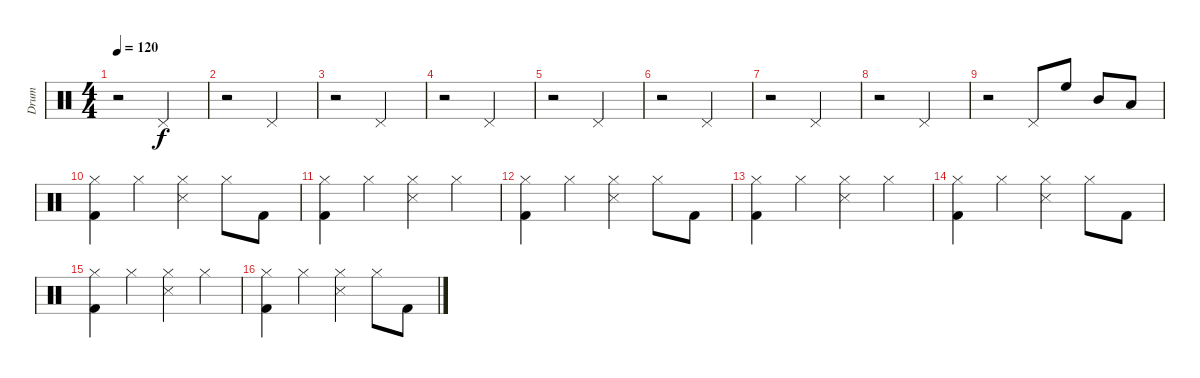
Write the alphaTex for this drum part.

\track ("Drum" "Drum") {instrument percussion}
\staff {score}
\articulation defaults
\ts (4 4)
\tempo 120
\clef neutral
\ks c
r.2{dy f} "Pedal Hi-Hat (hit)".2 |
r.2 "Pedal Hi-Hat (hit)".2 |
r.2 "Pedal Hi-Hat (hit)".2 |
r.2 "Pedal Hi-Hat (hit)".2 |
r.2 "Pedal Hi-Hat (hit)".2 |
r.2 "Pedal Hi-Hat (hit)".2 |
r.2 "Pedal Hi-Hat (hit)".2 |
r.2 "Pedal Hi-Hat (hit)".2 |
r.2 "Pedal Hi-Hat (hit)".8 "High Floor Tom (hit)".8 "Mid Tom (hit)".8 "Low Tom (hit)".8 |
("Hi-Hat (closed)" "Kick (hit) 2").4 "Hi-Hat (closed)".4 ("Hi-Hat (closed)" "Snare (side stick) 3").4 "Hi-Hat (closed)".8 "Kick (hit) 2".8 |
("Hi-Hat (closed)" "Kick (hit) 2").4 "Hi-Hat (closed)".4 ("Hi-Hat (closed)" "Snare (side stick) 3").4 "Hi-Hat (closed)".4 |
("Hi-Hat (closed)" "Kick (hit) 2").4 "Hi-Hat (closed)".4 ("Hi-Hat (closed)" "Snare (side stick) 3").4 "Hi-Hat (closed)".8 "Kick (hit) 2".8 |
("Hi-Hat (closed)" "Kick (hit) 2").4 "Hi-Hat (closed)".4 ("Hi-Hat (closed)" "Snare (side stick) 3").4 "Hi-Hat (closed)".4 |
("Hi-Hat (closed)" "Kick (hit) 2").4 "Hi-Hat (closed)".4 ("Hi-Hat (closed)" "Snare (side stick) 3").4 "Hi-Hat (closed)".8 "Kick (hit) 2".8 |
("Hi-Hat (closed)" "Kick (hit) 2").4 "Hi-Hat (closed)".4 ("Hi-Hat (closed)" "Snare (side stick) 3").4 "Hi-Hat (closed)".4 |
("Hi-Hat (closed)" "Kick (hit) 2").4 "Hi-Hat (closed)".4 ("Hi-Hat (closed)" "Snare (side stick) 3").4 "Hi-Hat (closed)".8 "Kick (hit) 2".8
